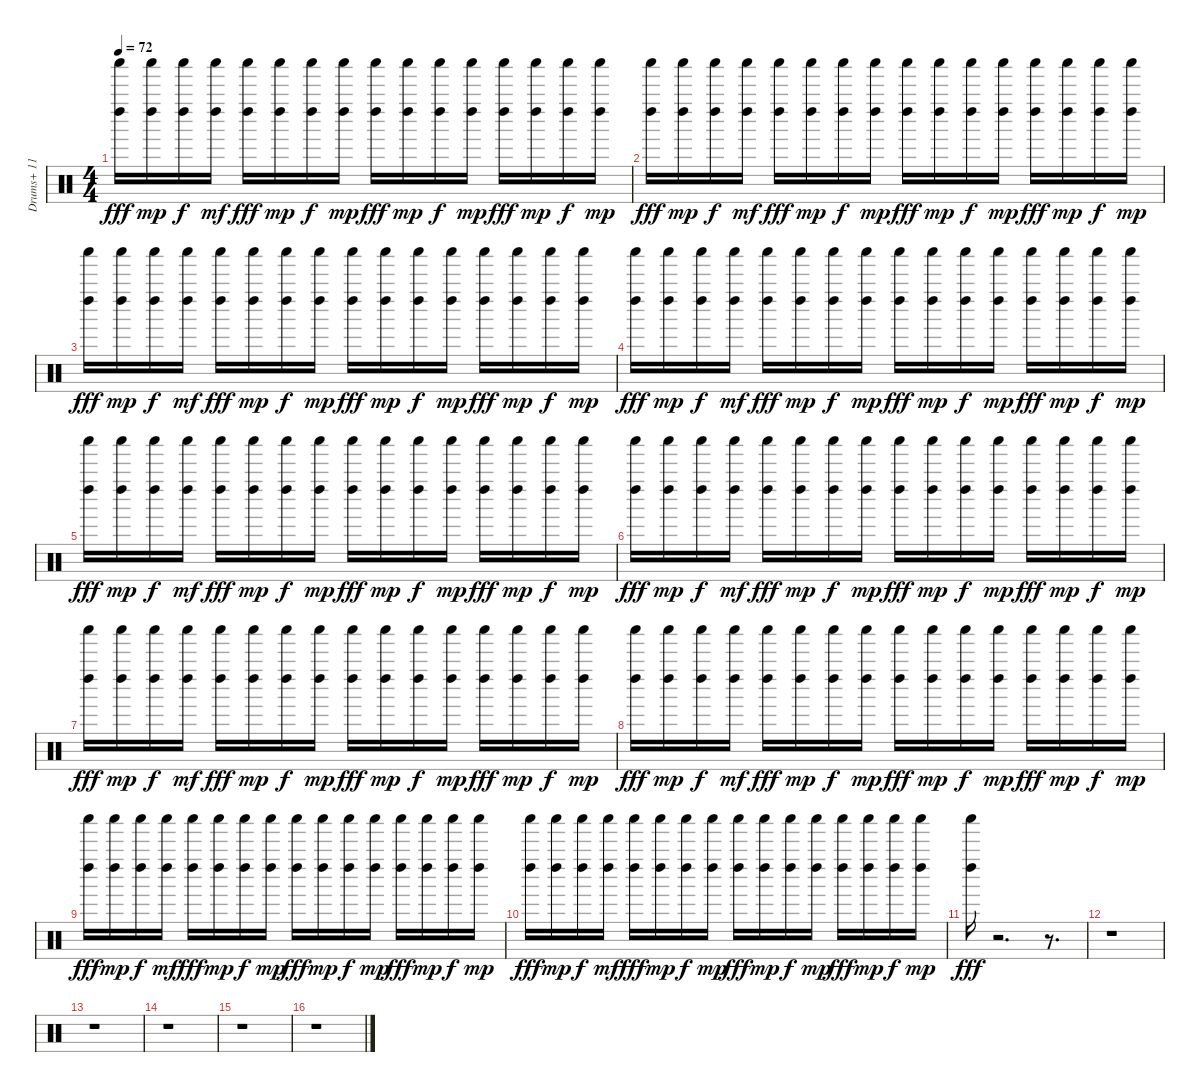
\track ("Drums+ 11" "Drums+ 11") {instrument percussion}
\staff {score}
\articulation defaults
\ts (4 4)
\tempo 72
\clef neutral
\ks c
("Shaker (hit)" "Left Maraca (hit)").16{dy fff} ("Shaker (hit)" "Left Maraca (hit)").16{dy mp} ("Shaker (hit)" "Left Maraca (hit)").16{dy f} ("Shaker (hit)" "Left Maraca (hit)").16{dy mf} ("Shaker (hit)" "Left Maraca (hit)").16{dy fff} ("Shaker (hit)" "Left Maraca (hit)").16{dy mp} ("Shaker (hit)" "Left Maraca (hit)").16{dy f} ("Shaker (hit)" "Left Maraca (hit)").16{dy mp} ("Shaker (hit)" "Left Maraca (hit)").16{dy fff} ("Shaker (hit)" "Left Maraca (hit)").16{dy mp} ("Shaker (hit)" "Left Maraca (hit)").16{dy f} ("Shaker (hit)" "Left Maraca (hit)").16{dy mp} ("Shaker (hit)" "Left Maraca (hit)").16{dy fff} ("Shaker (hit)" "Left Maraca (hit)").16{dy mp} ("Shaker (hit)" "Left Maraca (hit)").16{dy f} ("Shaker (hit)" "Left Maraca (hit)").16{dy mp} |
("Shaker (hit)" "Left Maraca (hit)").16{dy fff} ("Shaker (hit)" "Left Maraca (hit)").16{dy mp} ("Shaker (hit)" "Left Maraca (hit)").16{dy f} ("Shaker (hit)" "Left Maraca (hit)").16{dy mf} ("Shaker (hit)" "Left Maraca (hit)").16{dy fff} ("Shaker (hit)" "Left Maraca (hit)").16{dy mp} ("Shaker (hit)" "Left Maraca (hit)").16{dy f} ("Shaker (hit)" "Left Maraca (hit)").16{dy mp} ("Shaker (hit)" "Left Maraca (hit)").16{dy fff} ("Shaker (hit)" "Left Maraca (hit)").16{dy mp} ("Shaker (hit)" "Left Maraca (hit)").16{dy f} ("Shaker (hit)" "Left Maraca (hit)").16{dy mp} ("Shaker (hit)" "Left Maraca (hit)").16{dy fff} ("Shaker (hit)" "Left Maraca (hit)").16{dy mp} ("Shaker (hit)" "Left Maraca (hit)").16{dy f} ("Shaker (hit)" "Left Maraca (hit)").16{dy mp} |
("Shaker (hit)" "Left Maraca (hit)").16{dy fff} ("Shaker (hit)" "Left Maraca (hit)").16{dy mp} ("Shaker (hit)" "Left Maraca (hit)").16{dy f} ("Shaker (hit)" "Left Maraca (hit)").16{dy mf} ("Shaker (hit)" "Left Maraca (hit)").16{dy fff} ("Shaker (hit)" "Left Maraca (hit)").16{dy mp} ("Shaker (hit)" "Left Maraca (hit)").16{dy f} ("Shaker (hit)" "Left Maraca (hit)").16{dy mp} ("Shaker (hit)" "Left Maraca (hit)").16{dy fff} ("Shaker (hit)" "Left Maraca (hit)").16{dy mp} ("Shaker (hit)" "Left Maraca (hit)").16{dy f} ("Shaker (hit)" "Left Maraca (hit)").16{dy mp} ("Shaker (hit)" "Left Maraca (hit)").16{dy fff} ("Shaker (hit)" "Left Maraca (hit)").16{dy mp} ("Shaker (hit)" "Left Maraca (hit)").16{dy f} ("Shaker (hit)" "Left Maraca (hit)").16{dy mp} |
("Shaker (hit)" "Left Maraca (hit)").16{dy fff} ("Shaker (hit)" "Left Maraca (hit)").16{dy mp} ("Shaker (hit)" "Left Maraca (hit)").16{dy f} ("Shaker (hit)" "Left Maraca (hit)").16{dy mf} ("Shaker (hit)" "Left Maraca (hit)").16{dy fff} ("Shaker (hit)" "Left Maraca (hit)").16{dy mp} ("Shaker (hit)" "Left Maraca (hit)").16{dy f} ("Shaker (hit)" "Left Maraca (hit)").16{dy mp} ("Shaker (hit)" "Left Maraca (hit)").16{dy fff} ("Shaker (hit)" "Left Maraca (hit)").16{dy mp} ("Shaker (hit)" "Left Maraca (hit)").16{dy f} ("Shaker (hit)" "Left Maraca (hit)").16{dy mp} ("Shaker (hit)" "Left Maraca (hit)").16{dy fff} ("Shaker (hit)" "Left Maraca (hit)").16{dy mp} ("Shaker (hit)" "Left Maraca (hit)").16{dy f} ("Shaker (hit)" "Left Maraca (hit)").16{dy mp} |
("Shaker (hit)" "Left Maraca (hit)").16{dy fff} ("Shaker (hit)" "Left Maraca (hit)").16{dy mp} ("Shaker (hit)" "Left Maraca (hit)").16{dy f} ("Shaker (hit)" "Left Maraca (hit)").16{dy mf} ("Shaker (hit)" "Left Maraca (hit)").16{dy fff} ("Shaker (hit)" "Left Maraca (hit)").16{dy mp} ("Shaker (hit)" "Left Maraca (hit)").16{dy f} ("Shaker (hit)" "Left Maraca (hit)").16{dy mp} ("Shaker (hit)" "Left Maraca (hit)").16{dy fff} ("Shaker (hit)" "Left Maraca (hit)").16{dy mp} ("Shaker (hit)" "Left Maraca (hit)").16{dy f} ("Shaker (hit)" "Left Maraca (hit)").16{dy mp} ("Shaker (hit)" "Left Maraca (hit)").16{dy fff} ("Shaker (hit)" "Left Maraca (hit)").16{dy mp} ("Shaker (hit)" "Left Maraca (hit)").16{dy f} ("Shaker (hit)" "Left Maraca (hit)").16{dy mp} |
("Shaker (hit)" "Left Maraca (hit)").16{dy fff} ("Shaker (hit)" "Left Maraca (hit)").16{dy mp} ("Shaker (hit)" "Left Maraca (hit)").16{dy f} ("Shaker (hit)" "Left Maraca (hit)").16{dy mf} ("Shaker (hit)" "Left Maraca (hit)").16{dy fff} ("Shaker (hit)" "Left Maraca (hit)").16{dy mp} ("Shaker (hit)" "Left Maraca (hit)").16{dy f} ("Shaker (hit)" "Left Maraca (hit)").16{dy mp} ("Shaker (hit)" "Left Maraca (hit)").16{dy fff} ("Shaker (hit)" "Left Maraca (hit)").16{dy mp} ("Shaker (hit)" "Left Maraca (hit)").16{dy f} ("Shaker (hit)" "Left Maraca (hit)").16{dy mp} ("Shaker (hit)" "Left Maraca (hit)").16{dy fff} ("Shaker (hit)" "Left Maraca (hit)").16{dy mp} ("Shaker (hit)" "Left Maraca (hit)").16{dy f} ("Shaker (hit)" "Left Maraca (hit)").16{dy mp} |
("Shaker (hit)" "Left Maraca (hit)").16{dy fff} ("Shaker (hit)" "Left Maraca (hit)").16{dy mp} ("Shaker (hit)" "Left Maraca (hit)").16{dy f} ("Shaker (hit)" "Left Maraca (hit)").16{dy mf} ("Shaker (hit)" "Left Maraca (hit)").16{dy fff} ("Shaker (hit)" "Left Maraca (hit)").16{dy mp} ("Shaker (hit)" "Left Maraca (hit)").16{dy f} ("Shaker (hit)" "Left Maraca (hit)").16{dy mp} ("Shaker (hit)" "Left Maraca (hit)").16{dy fff} ("Shaker (hit)" "Left Maraca (hit)").16{dy mp} ("Shaker (hit)" "Left Maraca (hit)").16{dy f} ("Shaker (hit)" "Left Maraca (hit)").16{dy mp} ("Shaker (hit)" "Left Maraca (hit)").16{dy fff} ("Shaker (hit)" "Left Maraca (hit)").16{dy mp} ("Shaker (hit)" "Left Maraca (hit)").16{dy f} ("Shaker (hit)" "Left Maraca (hit)").16{dy mp} |
("Shaker (hit)" "Left Maraca (hit)").16{dy fff} ("Shaker (hit)" "Left Maraca (hit)").16{dy mp} ("Shaker (hit)" "Left Maraca (hit)").16{dy f} ("Shaker (hit)" "Left Maraca (hit)").16{dy mf} ("Shaker (hit)" "Left Maraca (hit)").16{dy fff} ("Shaker (hit)" "Left Maraca (hit)").16{dy mp} ("Shaker (hit)" "Left Maraca (hit)").16{dy f} ("Shaker (hit)" "Left Maraca (hit)").16{dy mp} ("Shaker (hit)" "Left Maraca (hit)").16{dy fff} ("Shaker (hit)" "Left Maraca (hit)").16{dy mp} ("Shaker (hit)" "Left Maraca (hit)").16{dy f} ("Shaker (hit)" "Left Maraca (hit)").16{dy mp} ("Shaker (hit)" "Left Maraca (hit)").16{dy fff} ("Shaker (hit)" "Left Maraca (hit)").16{dy mp} ("Shaker (hit)" "Left Maraca (hit)").16{dy f} ("Shaker (hit)" "Left Maraca (hit)").16{dy mp} |
("Shaker (hit)" "Left Maraca (hit)").16{dy fff} ("Shaker (hit)" "Left Maraca (hit)").16{dy mp} ("Shaker (hit)" "Left Maraca (hit)").16{dy f} ("Shaker (hit)" "Left Maraca (hit)").16{dy mf} ("Shaker (hit)" "Left Maraca (hit)").16{dy fff} ("Shaker (hit)" "Left Maraca (hit)").16{dy mp} ("Shaker (hit)" "Left Maraca (hit)").16{dy f} ("Shaker (hit)" "Left Maraca (hit)").16{dy mp} ("Shaker (hit)" "Left Maraca (hit)").16{dy fff} ("Shaker (hit)" "Left Maraca (hit)").16{dy mp} ("Shaker (hit)" "Left Maraca (hit)").16{dy f} ("Shaker (hit)" "Left Maraca (hit)").16{dy mp} ("Shaker (hit)" "Left Maraca (hit)").16{dy fff} ("Shaker (hit)" "Left Maraca (hit)").16{dy mp} ("Shaker (hit)" "Left Maraca (hit)").16{dy f} ("Shaker (hit)" "Left Maraca (hit)").16{dy mp} |
("Shaker (hit)" "Left Maraca (hit)").16{dy fff} ("Shaker (hit)" "Left Maraca (hit)").16{dy mp} ("Shaker (hit)" "Left Maraca (hit)").16{dy f} ("Shaker (hit)" "Left Maraca (hit)").16{dy mf} ("Shaker (hit)" "Left Maraca (hit)").16{dy fff} ("Shaker (hit)" "Left Maraca (hit)").16{dy mp} ("Shaker (hit)" "Left Maraca (hit)").16{dy f} ("Shaker (hit)" "Left Maraca (hit)").16{dy mp} ("Shaker (hit)" "Left Maraca (hit)").16{dy fff} ("Shaker (hit)" "Left Maraca (hit)").16{dy mp} ("Shaker (hit)" "Left Maraca (hit)").16{dy f} ("Shaker (hit)" "Left Maraca (hit)").16{dy mp} ("Shaker (hit)" "Left Maraca (hit)").16{dy fff} ("Shaker (hit)" "Left Maraca (hit)").16{dy mp} ("Shaker (hit)" "Left Maraca (hit)").16{dy f} ("Shaker (hit)" "Left Maraca (hit)").16{dy mp} |
("Shaker (hit)" "Left Maraca (hit)").16{dy fff} r.2{d} r.8{d} |
r.1 |
r.1 |
r.1 |
r.1 |
r.1
